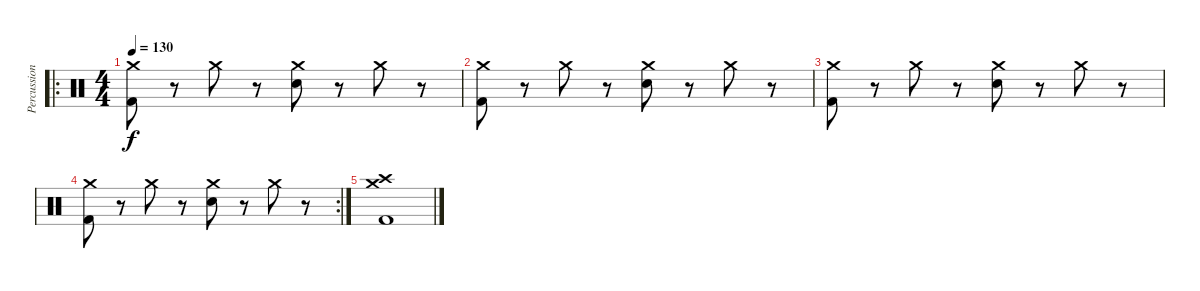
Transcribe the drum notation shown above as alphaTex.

\track ("Percussion" "Percussion") {instrument percussion}
\staff {score}
\articulation defaults
\ro
\ts (4 4)
\tempo 130
\clef neutral
\ks c
("Crash medium (hit)" "Kick (hit) 2").8{dy f volume 13} r.8 "Crash medium (hit)".8 r.8 ("Crash medium (hit)" "Snare (hit) 2").8 r.8 "Crash medium (hit)".8 r.8 |
("Crash medium (hit)" "Kick (hit) 2").8{volume 13} r.8 "Crash medium (hit)".8 r.8 ("Crash medium (hit)" "Snare (hit) 2").8 r.8 "Crash medium (hit)".8 r.8 |
("Crash medium (hit)" "Kick (hit) 2").8{volume 13} r.8 "Crash medium (hit)".8 r.8 ("Crash medium (hit)" "Snare (hit) 2").8 r.8 "Crash medium (hit)".8 r.8 |
\rc 2
("Crash medium (hit)" "Kick (hit) 2").8{volume 13} r.8 "Crash medium (hit)".8 r.8 ("Crash medium (hit)" "Snare (hit) 2").8 r.8 "Crash medium (hit)".8 r.8 |
("Crash medium (hit)" "Crash high (hit)" "Kick (hit) 2").1
